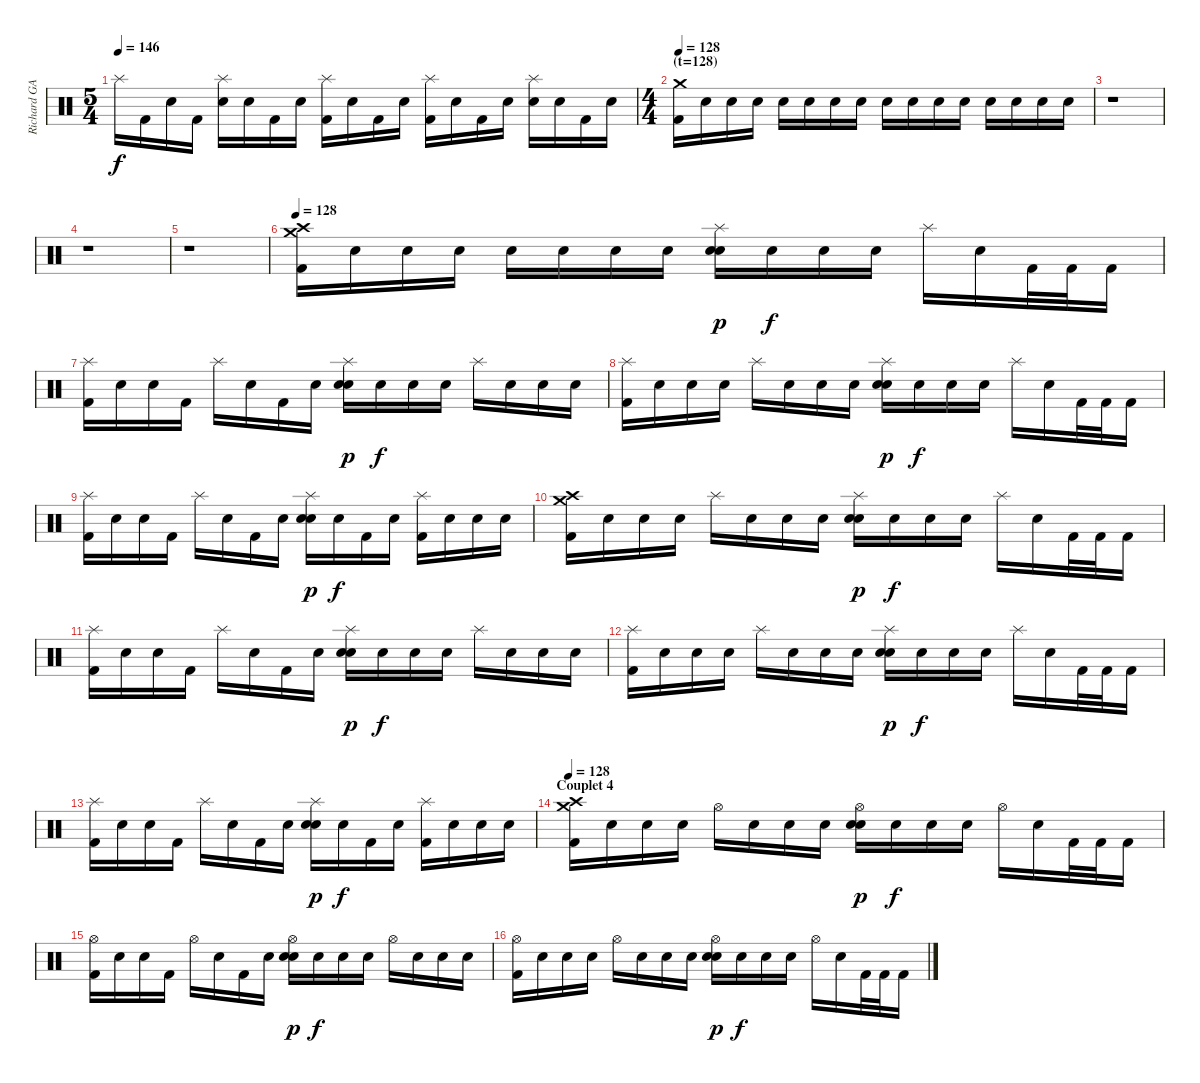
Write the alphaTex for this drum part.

\track ("Richard GAMBA - Batterie" "Richard GA") {instrument percussion}
\staff {score}
\articulation defaults
\ts (5 4)
\tempo 146
\clef neutral
\ks c "Splash (hit)".16{dy f} "Kick (hit) 2".16 "Snare (hit)".16 "Kick (hit) 2".16
("Splash (hit)" "Electric Snare (hit)").16 "Snare (hit)".16 "Kick (hit) 2".16 "Snare (hit)".16 ("Splash (hit)" "Kick (hit) 2").16 "Snare (hit)".16 "Kick (hit) 2".16 "Snare (hit)".16 ("Splash (hit)" "Kick (hit) 2").16 "Snare (hit)".16 "Kick (hit) 2".16 "Snare (hit)".16 ("Splash (hit)" "Electric Snare (hit)").16 "Snare (hit)".16 "Kick (hit) 2".16 "Snare (hit)".16 |
\ts (4 4)
\section ("" "(t=128)")
\tempo 128
("Crash medium (hit)" "Kick (hit) 2").16{volume 16 balance 8} "Snare (hit)".16 "Snare (hit)".16 "Snare (hit)".16 "Snare (hit)".16 "Snare (hit)".16 "Snare (hit)".16 "Snare (hit)".16 "Snare (hit)".16 "Snare (hit)".16 "Snare (hit)".16 "Snare (hit)".16 "Snare (hit)".16 "Snare (hit)".16 "Snare (hit)".16 "Snare (hit)".16 |
r.1 |
r.1 |
r.1 |
\section ("" "")
\tempo 128
("Crash medium (hit)" "Crash high (hit)" "Kick (hit) 2").16{volume 16 balance 8} "Snare (hit)".16 "Snare (hit)".16 "Snare (hit)".16 "Snare (hit)".16 "Snare (hit)".16 "Snare (hit)".16 "Snare (hit)".16 ("Splash (hit)" "Electric Snare (hit)" "Snare (hit) 2").16{dy p} "Snare (hit)".16{dy f} "Snare (hit)".16 "Snare (hit)".16 "Splash (hit)".16 "Snare (hit)".16 "Kick (hit) 2".32 "Kick (hit) 2".32 "Kick (hit) 2".16 |
("Splash (hit)" "Kick (hit) 2").16 "Snare (hit)".16 "Snare (hit)".16 "Kick (hit) 2".16 "Splash (hit)".16 "Snare (hit)".16 "Kick (hit) 2".16 "Snare (hit)".16 ("Splash (hit)" "Electric Snare (hit)" "Snare (hit) 2").16{dy p} "Snare (hit)".16{dy f} "Snare (hit)".16 "Snare (hit)".16 "Splash (hit)".16 "Snare (hit)".16 "Snare (hit)".16 "Snare (hit)".16 |
("Splash (hit)" "Kick (hit) 2").16 "Snare (hit)".16 "Snare (hit)".16 "Snare (hit)".16 "Splash (hit)".16 "Snare (hit)".16 "Snare (hit)".16 "Snare (hit)".16 ("Splash (hit)" "Electric Snare (hit)" "Snare (hit) 2").16{dy p} "Snare (hit)".16{dy f} "Snare (hit)".16 "Snare (hit)".16 "Splash (hit)".16 "Snare (hit)".16 "Kick (hit) 2".32 "Kick (hit) 2".32 "Kick (hit) 2".16 |
("Splash (hit)" "Kick (hit) 2").16 "Snare (hit)".16 "Snare (hit)".16 "Kick (hit) 2".16 "Splash (hit)".16 "Snare (hit)".16 "Kick (hit) 2".16 "Snare (hit)".16 ("Splash (hit)" "Electric Snare (hit)" "Snare (hit) 2").16{dy p} "Snare (hit)".16{dy f} "Kick (hit) 2".16 "Snare (hit)".16 ("Splash (hit)" "Kick (hit) 2").16 "Snare (hit)".16 "Snare (hit)".16 "Snare (hit)".16 |
("Crash medium (hit)" "Crash high (hit)" "Kick (hit) 2").16 "Snare (hit)".16 "Snare (hit)".16 "Snare (hit)".16 "Splash (hit)".16 "Snare (hit)".16 "Snare (hit)".16 "Snare (hit)".16 ("Splash (hit)" "Electric Snare (hit)" "Snare (hit) 2").16{dy p} "Snare (hit)".16{dy f} "Snare (hit)".16 "Snare (hit)".16 "Splash (hit)".16 "Snare (hit)".16 "Kick (hit) 2".32 "Kick (hit) 2".32 "Kick (hit) 2".16 |
("Splash (hit)" "Kick (hit) 2").16 "Snare (hit)".16 "Snare (hit)".16 "Kick (hit) 2".16 "Splash (hit)".16 "Snare (hit)".16 "Kick (hit) 2".16 "Snare (hit)".16 ("Splash (hit)" "Electric Snare (hit)" "Snare (hit) 2").16{dy p} "Snare (hit)".16{dy f} "Snare (hit)".16 "Snare (hit)".16 "Splash (hit)".16 "Snare (hit)".16 "Snare (hit)".16 "Snare (hit)".16 |
("Splash (hit)" "Kick (hit) 2").16 "Snare (hit)".16 "Snare (hit)".16 "Snare (hit)".16 "Splash (hit)".16 "Snare (hit)".16 "Snare (hit)".16 "Snare (hit)".16 ("Splash (hit)" "Electric Snare (hit)" "Snare (hit) 2").16{dy p} "Snare (hit)".16{dy f} "Snare (hit)".16 "Snare (hit)".16 "Splash (hit)".16 "Snare (hit)".16 "Kick (hit) 2".32 "Kick (hit) 2".32 "Kick (hit) 2".16 |
("Splash (hit)" "Kick (hit) 2").16 "Snare (hit)".16 "Snare (hit)".16 "Kick (hit) 2".16 "Splash (hit)".16 "Snare (hit)".16 "Kick (hit) 2".16 "Snare (hit)".16 ("Splash (hit)" "Electric Snare (hit)" "Snare (hit) 2").16{dy p} "Snare (hit)".16{dy f} "Kick (hit) 2".16 "Snare (hit)".16 ("Splash (hit)" "Kick (hit) 2").16 "Snare (hit)".16 "Snare (hit)".16 "Snare (hit)".16 |
\section ("" "Couplet 4")
\tempo 128
("Crash medium (hit)" "Crash high (hit)" "Kick (hit) 2").16{volume 16 balance 8} "Snare (hit)".16 "Snare (hit)".16 "Snare (hit)".16 "Hi-Hat (open)".16 "Snare (hit)".16 "Snare (hit)".16 "Snare (hit)".16 ("Hi-Hat (open)" "Electric Snare (hit)" "Snare (hit) 2").16{dy p} "Snare (hit)".16{dy f} "Snare (hit)".16 "Snare (hit)".16 "Hi-Hat (open)".16 "Snare (hit)".16 "Kick (hit) 2".32 "Kick (hit) 2".32 "Kick (hit) 2".16 |
("Hi-Hat (open)" "Kick (hit) 2").16 "Snare (hit)".16 "Snare (hit)".16 "Kick (hit) 2".16 "Hi-Hat (open)".16 "Snare (hit)".16 "Kick (hit) 2".16 "Snare (hit)".16 ("Hi-Hat (open)" "Electric Snare (hit)" "Snare (hit) 2").16{dy p} "Snare (hit)".16{dy f} "Snare (hit)".16 "Snare (hit)".16 "Hi-Hat (open)".16 "Snare (hit)".16 "Snare (hit)".16 "Snare (hit)".16 |
("Hi-Hat (open)" "Kick (hit) 2").16 "Snare (hit)".16 "Snare (hit)".16 "Snare (hit)".16 "Hi-Hat (open)".16 "Snare (hit)".16 "Snare (hit)".16 "Snare (hit)".16 ("Hi-Hat (open)" "Electric Snare (hit)" "Snare (hit) 2").16{dy p} "Snare (hit)".16{dy f} "Snare (hit)".16 "Snare (hit)".16 "Hi-Hat (open)".16 "Snare (hit)".16 "Kick (hit) 2".32 "Kick (hit) 2".32 "Kick (hit) 2".16
